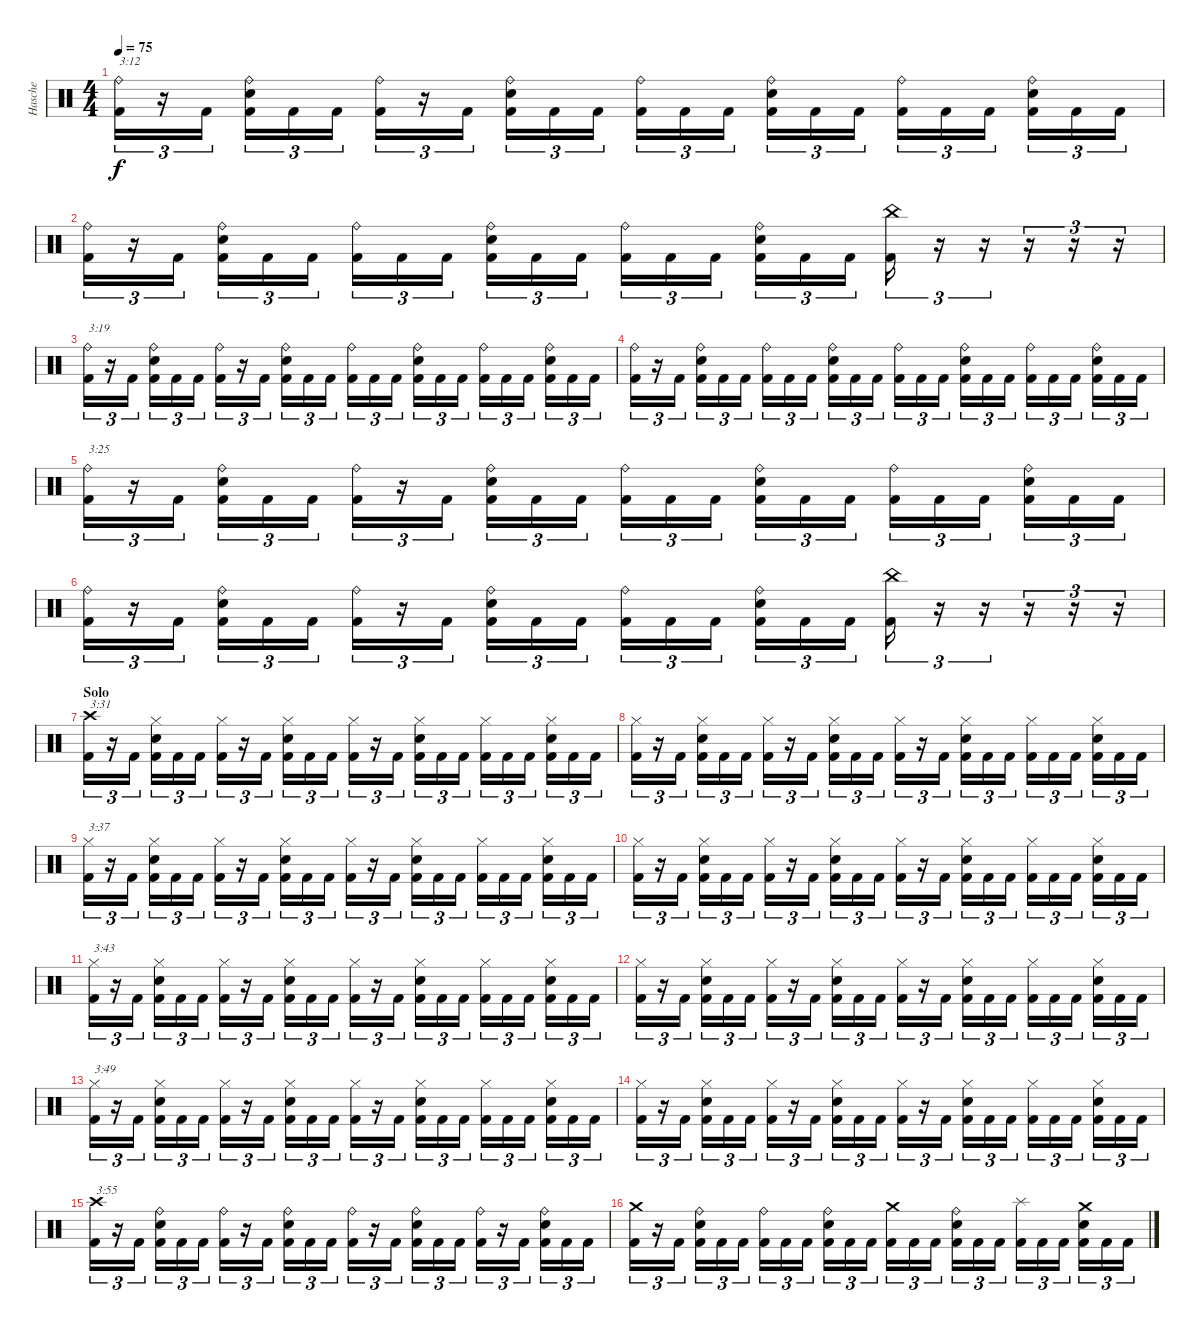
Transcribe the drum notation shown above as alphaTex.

\track ("Hasche" "Hasche") {instrument percussion}
\staff {score}
\articulation defaults
\ts (4 4)
\tempo 75
\clef neutral
\ks c
("Ride (bell)" "Kick (hit) 2").16{tu (3 2) txt "3:12" dy f} r.16{tu (3 2)} "Kick (hit) 2".16{tu (3 2)} ("Ride (bell)" "Snare (hit) 2" "Kick (hit) 2").16{tu (3 2)} "Kick (hit) 2".16{tu (3 2)} "Kick (hit) 2".16{tu (3 2)} ("Ride (bell)" "Kick (hit) 2").16{tu (3 2)} r.16{tu (3 2)} "Kick (hit) 2".16{tu (3 2)} ("Ride (bell)" "Snare (hit) 2" "Kick (hit) 2").16{tu (3 2)} "Kick (hit) 2".16{tu (3 2)} "Kick (hit) 2".16{tu (3 2)} ("Ride (bell)" "Kick (hit) 2").16{tu (3 2)} "Kick (hit) 2".16{tu (3 2)} "Kick (hit) 2".16{tu (3 2)} ("Ride (bell)" "Snare (hit) 2" "Kick (hit) 2").16{tu (3 2)} "Kick (hit) 2".16{tu (3 2)} "Kick (hit) 2".16{tu (3 2)} ("Ride (bell)" "Kick (hit) 2").16{tu (3 2)} "Kick (hit) 2".16{tu (3 2)} "Kick (hit) 2".16{tu (3 2)} ("Ride (bell)" "Snare (hit) 2" "Kick (hit) 2").16{tu (3 2)} "Kick (hit) 2".16{tu (3 2)} "Kick (hit) 2".16{tu (3 2)} |
("Ride (bell)" "Kick (hit) 2").16{tu (3 2)} r.16{tu (3 2)} "Kick (hit) 2".16{tu (3 2)} ("Ride (bell)" "Snare (hit) 2" "Kick (hit) 2").16{tu (3 2)} "Kick (hit) 2".16{tu (3 2)} "Kick (hit) 2".16{tu (3 2)} ("Ride (bell)" "Kick (hit) 2").16{tu (3 2)} "Kick (hit) 2".16{tu (3 2)} "Kick (hit) 2".16{tu (3 2)} ("Ride (bell)" "Snare (hit) 2" "Kick (hit) 2").16{tu (3 2)} "Kick (hit) 2".16{tu (3 2)} "Kick (hit) 2".16{tu (3 2)} ("Ride (bell)" "Kick (hit) 2").16{tu (3 2)} "Kick (hit) 2".16{tu (3 2)} "Kick (hit) 2".16{tu (3 2)} ("Ride (bell)" "Snare (hit) 2" "Kick (hit) 2").16{tu (3 2)} "Kick (hit) 2".16{tu (3 2)} "Kick (hit) 2".16{tu (3 2)} ("China (hit)" "Kick (hit) 2").16{tu (3 2)} r.16{tu (3 2)} r.16{tu (3 2)} r.16{tu (3 2)} r.16{tu (3 2)} r.16{tu (3 2)} |
("Ride (bell)" "Kick (hit) 2").16{tu (3 2) txt "3:19"} r.16{tu (3 2)} "Kick (hit) 2".16{tu (3 2)} ("Ride (bell)" "Snare (hit) 2" "Kick (hit) 2").16{tu (3 2)} "Kick (hit) 2".16{tu (3 2)} "Kick (hit) 2".16{tu (3 2)} ("Ride (bell)" "Kick (hit) 2").16{tu (3 2)} r.16{tu (3 2)} "Kick (hit) 2".16{tu (3 2)} ("Ride (bell)" "Snare (hit) 2" "Kick (hit) 2").16{tu (3 2)} "Kick (hit) 2".16{tu (3 2)} "Kick (hit) 2".16{tu (3 2)} ("Ride (bell)" "Kick (hit) 2").16{tu (3 2)} "Kick (hit) 2".16{tu (3 2)} "Kick (hit) 2".16{tu (3 2)} ("Ride (bell)" "Snare (hit) 2" "Kick (hit) 2").16{tu (3 2)} "Kick (hit) 2".16{tu (3 2)} "Kick (hit) 2".16{tu (3 2)} ("Ride (bell)" "Kick (hit) 2").16{tu (3 2)} "Kick (hit) 2".16{tu (3 2)} "Kick (hit) 2".16{tu (3 2)} ("Ride (bell)" "Snare (hit) 2" "Kick (hit) 2").16{tu (3 2)} "Kick (hit) 2".16{tu (3 2)} "Kick (hit) 2".16{tu (3 2)} |
("Ride (bell)" "Kick (hit) 2").16{tu (3 2)} r.16{tu (3 2)} "Kick (hit) 2".16{tu (3 2)} ("Ride (bell)" "Snare (hit) 2" "Kick (hit) 2").16{tu (3 2)} "Kick (hit) 2".16{tu (3 2)} "Kick (hit) 2".16{tu (3 2)} ("Ride (bell)" "Kick (hit) 2").16{tu (3 2)} "Kick (hit) 2".16{tu (3 2)} "Kick (hit) 2".16{tu (3 2)} ("Ride (bell)" "Snare (hit) 2" "Kick (hit) 2").16{tu (3 2)} "Kick (hit) 2".16{tu (3 2)} "Kick (hit) 2".16{tu (3 2)} ("Ride (bell)" "Kick (hit) 2").16{tu (3 2)} "Kick (hit) 2".16{tu (3 2)} "Kick (hit) 2".16{tu (3 2)} ("Ride (bell)" "Snare (hit) 2" "Kick (hit) 2").16{tu (3 2)} "Kick (hit) 2".16{tu (3 2)} "Kick (hit) 2".16{tu (3 2)} ("Ride (bell)" "Kick (hit) 2").16{tu (3 2)} "Kick (hit) 2".16{tu (3 2)} "Kick (hit) 2".16{tu (3 2)} ("Ride (bell)" "Snare (hit) 2" "Kick (hit) 2").16{tu (3 2)} "Kick (hit) 2".16{tu (3 2)} "Kick (hit) 2".16{tu (3 2)} |
("Ride (bell)" "Kick (hit) 2").16{tu (3 2) txt "3:25"} r.16{tu (3 2)} "Kick (hit) 2".16{tu (3 2)} ("Ride (bell)" "Snare (hit) 2" "Kick (hit) 2").16{tu (3 2)} "Kick (hit) 2".16{tu (3 2)} "Kick (hit) 2".16{tu (3 2)} ("Ride (bell)" "Kick (hit) 2").16{tu (3 2)} r.16{tu (3 2)} "Kick (hit) 2".16{tu (3 2)} ("Ride (bell)" "Snare (hit) 2" "Kick (hit) 2").16{tu (3 2)} "Kick (hit) 2".16{tu (3 2)} "Kick (hit) 2".16{tu (3 2)} ("Ride (bell)" "Kick (hit) 2").16{tu (3 2)} "Kick (hit) 2".16{tu (3 2)} "Kick (hit) 2".16{tu (3 2)} ("Ride (bell)" "Snare (hit) 2" "Kick (hit) 2").16{tu (3 2)} "Kick (hit) 2".16{tu (3 2)} "Kick (hit) 2".16{tu (3 2)} ("Ride (bell)" "Kick (hit) 2").16{tu (3 2)} "Kick (hit) 2".16{tu (3 2)} "Kick (hit) 2".16{tu (3 2)} ("Ride (bell)" "Snare (hit) 2" "Kick (hit) 2").16{tu (3 2)} "Kick (hit) 2".16{tu (3 2)} "Kick (hit) 2".16{tu (3 2)} |
("Ride (bell)" "Kick (hit) 2").16{tu (3 2)} r.16{tu (3 2)} "Kick (hit) 2".16{tu (3 2)} ("Ride (bell)" "Snare (hit) 2" "Kick (hit) 2").16{tu (3 2)} "Kick (hit) 2".16{tu (3 2)} "Kick (hit) 2".16{tu (3 2)} ("Ride (bell)" "Kick (hit) 2").16{tu (3 2)} r.16{tu (3 2)} "Kick (hit) 2".16{tu (3 2)} ("Ride (bell)" "Snare (hit) 2" "Kick (hit) 2").16{tu (3 2)} "Kick (hit) 2".16{tu (3 2)} "Kick (hit) 2".16{tu (3 2)} ("Ride (bell)" "Kick (hit) 2").16{tu (3 2)} "Kick (hit) 2".16{tu (3 2)} "Kick (hit) 2".16{tu (3 2)} ("Ride (bell)" "Snare (hit) 2" "Kick (hit) 2").16{tu (3 2)} "Kick (hit) 2".16{tu (3 2)} "Kick (hit) 2".16{tu (3 2)} ("China (hit)" "Kick (hit) 2").16{tu (3 2)} r.16{tu (3 2)} r.16{tu (3 2)} r.16{tu (3 2)} r.16{tu (3 2)} r.16{tu (3 2)} |
\section ("" "Solo")
("Crash high (hit)" "Kick (hit) 2").16{tu (3 2) txt "3:31"} r.16{tu (3 2)} "Kick (hit) 2".16{tu (3 2)} ("Hi-Hat (closed)" "Snare (hit) 2" "Kick (hit) 2").16{tu (3 2)} "Kick (hit) 2".16{tu (3 2)} "Kick (hit) 2".16{tu (3 2)} ("Hi-Hat (closed)" "Kick (hit) 2").16{tu (3 2)} r.16{tu (3 2)} "Kick (hit) 2".16{tu (3 2)} ("Hi-Hat (closed)" "Snare (hit) 2" "Kick (hit) 2").16{tu (3 2)} "Kick (hit) 2".16{tu (3 2)} "Kick (hit) 2".16{tu (3 2)} ("Hi-Hat (closed)" "Kick (hit) 2").16{tu (3 2)} r.16{tu (3 2)} "Kick (hit) 2".16{tu (3 2)} ("Hi-Hat (closed)" "Snare (hit) 2" "Kick (hit) 2").16{tu (3 2)} "Kick (hit) 2".16{tu (3 2)} "Kick (hit) 2".16{tu (3 2)} ("Hi-Hat (closed)" "Kick (hit) 2").16{tu (3 2)} "Kick (hit) 2".16{tu (3 2)} "Kick (hit) 2".16{tu (3 2)} ("Hi-Hat (closed)" "Snare (hit) 2" "Kick (hit) 2").16{tu (3 2)} "Kick (hit) 2".16{tu (3 2)} "Kick (hit) 2".16{tu (3 2)} |
("Hi-Hat (closed)" "Kick (hit) 2").16{tu (3 2)} r.16{tu (3 2)} "Kick (hit) 2".16{tu (3 2)} ("Hi-Hat (closed)" "Snare (hit) 2" "Kick (hit) 2").16{tu (3 2)} "Kick (hit) 2".16{tu (3 2)} "Kick (hit) 2".16{tu (3 2)} ("Hi-Hat (closed)" "Kick (hit) 2").16{tu (3 2)} r.16{tu (3 2)} "Kick (hit) 2".16{tu (3 2)} ("Hi-Hat (closed)" "Snare (hit) 2" "Kick (hit) 2").16{tu (3 2)} "Kick (hit) 2".16{tu (3 2)} "Kick (hit) 2".16{tu (3 2)} ("Hi-Hat (closed)" "Kick (hit) 2").16{tu (3 2)} r.16{tu (3 2)} "Kick (hit) 2".16{tu (3 2)} ("Hi-Hat (closed)" "Snare (hit) 2" "Kick (hit) 2").16{tu (3 2)} "Kick (hit) 2".16{tu (3 2)} "Kick (hit) 2".16{tu (3 2)} ("Hi-Hat (closed)" "Kick (hit) 2").16{tu (3 2)} "Kick (hit) 2".16{tu (3 2)} "Kick (hit) 2".16{tu (3 2)} ("Hi-Hat (closed)" "Snare (hit) 2" "Kick (hit) 2").16{tu (3 2)} "Kick (hit) 2".16{tu (3 2)} "Kick (hit) 2".16{tu (3 2)} |
("Hi-Hat (closed)" "Kick (hit) 2").16{tu (3 2) txt "3:37"} r.16{tu (3 2)} "Kick (hit) 2".16{tu (3 2)} ("Hi-Hat (closed)" "Snare (hit) 2" "Kick (hit) 2").16{tu (3 2)} "Kick (hit) 2".16{tu (3 2)} "Kick (hit) 2".16{tu (3 2)} ("Hi-Hat (closed)" "Kick (hit) 2").16{tu (3 2)} r.16{tu (3 2)} "Kick (hit) 2".16{tu (3 2)} ("Hi-Hat (closed)" "Snare (hit) 2" "Kick (hit) 2").16{tu (3 2)} "Kick (hit) 2".16{tu (3 2)} "Kick (hit) 2".16{tu (3 2)} ("Hi-Hat (closed)" "Kick (hit) 2").16{tu (3 2)} r.16{tu (3 2)} "Kick (hit) 2".16{tu (3 2)} ("Hi-Hat (closed)" "Snare (hit) 2" "Kick (hit) 2").16{tu (3 2)} "Kick (hit) 2".16{tu (3 2)} "Kick (hit) 2".16{tu (3 2)} ("Hi-Hat (closed)" "Kick (hit) 2").16{tu (3 2)} "Kick (hit) 2".16{tu (3 2)} "Kick (hit) 2".16{tu (3 2)} ("Hi-Hat (closed)" "Snare (hit) 2" "Kick (hit) 2").16{tu (3 2)} "Kick (hit) 2".16{tu (3 2)} "Kick (hit) 2".16{tu (3 2)} |
("Hi-Hat (closed)" "Kick (hit) 2").16{tu (3 2)} r.16{tu (3 2)} "Kick (hit) 2".16{tu (3 2)} ("Hi-Hat (closed)" "Snare (hit) 2" "Kick (hit) 2").16{tu (3 2)} "Kick (hit) 2".16{tu (3 2)} "Kick (hit) 2".16{tu (3 2)} ("Hi-Hat (closed)" "Kick (hit) 2").16{tu (3 2)} r.16{tu (3 2)} "Kick (hit) 2".16{tu (3 2)} ("Hi-Hat (closed)" "Snare (hit) 2" "Kick (hit) 2").16{tu (3 2)} "Kick (hit) 2".16{tu (3 2)} "Kick (hit) 2".16{tu (3 2)} ("Hi-Hat (closed)" "Kick (hit) 2").16{tu (3 2)} r.16{tu (3 2)} "Kick (hit) 2".16{tu (3 2)} ("Hi-Hat (closed)" "Snare (hit) 2" "Kick (hit) 2").16{tu (3 2)} "Kick (hit) 2".16{tu (3 2)} "Kick (hit) 2".16{tu (3 2)} ("Hi-Hat (closed)" "Kick (hit) 2").16{tu (3 2)} "Kick (hit) 2".16{tu (3 2)} "Kick (hit) 2".16{tu (3 2)} ("Hi-Hat (closed)" "Snare (hit) 2" "Kick (hit) 2").16{tu (3 2)} "Kick (hit) 2".16{tu (3 2)} "Kick (hit) 2".16{tu (3 2)} |
("Hi-Hat (closed)" "Kick (hit) 2").16{tu (3 2) txt "3:43"} r.16{tu (3 2)} "Kick (hit) 2".16{tu (3 2)} ("Hi-Hat (closed)" "Snare (hit) 2" "Kick (hit) 2").16{tu (3 2)} "Kick (hit) 2".16{tu (3 2)} "Kick (hit) 2".16{tu (3 2)} ("Hi-Hat (closed)" "Kick (hit) 2").16{tu (3 2)} r.16{tu (3 2)} "Kick (hit) 2".16{tu (3 2)} ("Hi-Hat (closed)" "Snare (hit) 2" "Kick (hit) 2").16{tu (3 2)} "Kick (hit) 2".16{tu (3 2)} "Kick (hit) 2".16{tu (3 2)} ("Hi-Hat (closed)" "Kick (hit) 2").16{tu (3 2)} r.16{tu (3 2)} "Kick (hit) 2".16{tu (3 2)} ("Hi-Hat (closed)" "Snare (hit) 2" "Kick (hit) 2").16{tu (3 2)} "Kick (hit) 2".16{tu (3 2)} "Kick (hit) 2".16{tu (3 2)} ("Hi-Hat (closed)" "Kick (hit) 2").16{tu (3 2)} "Kick (hit) 2".16{tu (3 2)} "Kick (hit) 2".16{tu (3 2)} ("Hi-Hat (closed)" "Snare (hit) 2" "Kick (hit) 2").16{tu (3 2)} "Kick (hit) 2".16{tu (3 2)} "Kick (hit) 2".16{tu (3 2)} |
("Hi-Hat (closed)" "Kick (hit) 2").16{tu (3 2)} r.16{tu (3 2)} "Kick (hit) 2".16{tu (3 2)} ("Hi-Hat (closed)" "Snare (hit) 2" "Kick (hit) 2").16{tu (3 2)} "Kick (hit) 2".16{tu (3 2)} "Kick (hit) 2".16{tu (3 2)} ("Hi-Hat (closed)" "Kick (hit) 2").16{tu (3 2)} r.16{tu (3 2)} "Kick (hit) 2".16{tu (3 2)} ("Hi-Hat (closed)" "Snare (hit) 2" "Kick (hit) 2").16{tu (3 2)} "Kick (hit) 2".16{tu (3 2)} "Kick (hit) 2".16{tu (3 2)} ("Hi-Hat (closed)" "Kick (hit) 2").16{tu (3 2)} r.16{tu (3 2)} "Kick (hit) 2".16{tu (3 2)} ("Hi-Hat (closed)" "Snare (hit) 2" "Kick (hit) 2").16{tu (3 2)} "Kick (hit) 2".16{tu (3 2)} "Kick (hit) 2".16{tu (3 2)} ("Hi-Hat (closed)" "Kick (hit) 2").16{tu (3 2)} "Kick (hit) 2".16{tu (3 2)} "Kick (hit) 2".16{tu (3 2)} ("Hi-Hat (closed)" "Snare (hit) 2" "Kick (hit) 2").16{tu (3 2)} "Kick (hit) 2".16{tu (3 2)} "Kick (hit) 2".16{tu (3 2)} |
("Hi-Hat (closed)" "Kick (hit) 2").16{tu (3 2) txt "3:49"} r.16{tu (3 2)} "Kick (hit) 2".16{tu (3 2)} ("Hi-Hat (closed)" "Snare (hit) 2" "Kick (hit) 2").16{tu (3 2)} "Kick (hit) 2".16{tu (3 2)} "Kick (hit) 2".16{tu (3 2)} ("Hi-Hat (closed)" "Kick (hit) 2").16{tu (3 2)} r.16{tu (3 2)} "Kick (hit) 2".16{tu (3 2)} ("Hi-Hat (closed)" "Snare (hit) 2" "Kick (hit) 2").16{tu (3 2)} "Kick (hit) 2".16{tu (3 2)} "Kick (hit) 2".16{tu (3 2)} ("Hi-Hat (closed)" "Kick (hit) 2").16{tu (3 2)} r.16{tu (3 2)} "Kick (hit) 2".16{tu (3 2)} ("Hi-Hat (closed)" "Snare (hit) 2" "Kick (hit) 2").16{tu (3 2)} "Kick (hit) 2".16{tu (3 2)} "Kick (hit) 2".16{tu (3 2)} ("Hi-Hat (closed)" "Kick (hit) 2").16{tu (3 2)} "Kick (hit) 2".16{tu (3 2)} "Kick (hit) 2".16{tu (3 2)} ("Hi-Hat (closed)" "Snare (hit) 2" "Kick (hit) 2").16{tu (3 2)} "Kick (hit) 2".16{tu (3 2)} "Kick (hit) 2".16{tu (3 2)} |
("Hi-Hat (closed)" "Kick (hit) 2").16{tu (3 2)} r.16{tu (3 2)} "Kick (hit) 2".16{tu (3 2)} ("Hi-Hat (closed)" "Snare (hit) 2" "Kick (hit) 2").16{tu (3 2)} "Kick (hit) 2".16{tu (3 2)} "Kick (hit) 2".16{tu (3 2)} ("Hi-Hat (closed)" "Kick (hit) 2").16{tu (3 2)} r.16{tu (3 2)} "Kick (hit) 2".16{tu (3 2)} ("Hi-Hat (closed)" "Snare (hit) 2" "Kick (hit) 2").16{tu (3 2)} "Kick (hit) 2".16{tu (3 2)} "Kick (hit) 2".16{tu (3 2)} ("Hi-Hat (closed)" "Kick (hit) 2").16{tu (3 2)} r.16{tu (3 2)} "Kick (hit) 2".16{tu (3 2)} ("Hi-Hat (closed)" "Snare (hit) 2" "Kick (hit) 2").16{tu (3 2)} "Kick (hit) 2".16{tu (3 2)} "Kick (hit) 2".16{tu (3 2)} ("Hi-Hat (closed)" "Kick (hit) 2").16{tu (3 2)} "Kick (hit) 2".16{tu (3 2)} "Kick (hit) 2".16{tu (3 2)} ("Hi-Hat (closed)" "Snare (hit) 2" "Kick (hit) 2").16{tu (3 2)} "Kick (hit) 2".16{tu (3 2)} "Kick (hit) 2".16{tu (3 2)} |
("Crash high (hit)" "Kick (hit) 2").16{tu (3 2) txt "3:55"} r.16{tu (3 2)} "Kick (hit) 2".16{tu (3 2)} ("Ride (bell)" "Snare (hit) 2" "Kick (hit) 2").16{tu (3 2)} "Kick (hit) 2".16{tu (3 2)} "Kick (hit) 2".16{tu (3 2)} ("Ride (bell)" "Kick (hit) 2").16{tu (3 2)} r.16{tu (3 2)} "Kick (hit) 2".16{tu (3 2)} ("Ride (bell)" "Snare (hit) 2" "Kick (hit) 2").16{tu (3 2)} "Kick (hit) 2".16{tu (3 2)} "Kick (hit) 2".16{tu (3 2)} ("Ride (bell)" "Kick (hit) 2").16{tu (3 2)} r.16{tu (3 2)} "Kick (hit) 2".16{tu (3 2)} ("Ride (bell)" "Snare (hit) 2" "Kick (hit) 2").16{tu (3 2)} "Kick (hit) 2".16{tu (3 2)} "Kick (hit) 2".16{tu (3 2)} ("Ride (bell)" "Kick (hit) 2").16{tu (3 2)} r.16{tu (3 2)} "Kick (hit) 2".16{tu (3 2)} ("Ride (bell)" "Snare (hit) 2" "Kick (hit) 2").16{tu (3 2)} "Kick (hit) 2".16{tu (3 2)} "Kick (hit) 2".16{tu (3 2)} |
("Crash medium (hit)" "Kick (hit) 2").16{tu (3 2)} r.16{tu (3 2)} "Kick (hit) 2".16{tu (3 2)} ("Ride (bell)" "Snare (hit) 2" "Kick (hit) 2").16{tu (3 2)} "Kick (hit) 2".16{tu (3 2)} "Kick (hit) 2".16{tu (3 2)} ("Ride (bell)" "Kick (hit) 2").16{tu (3 2)} "Kick (hit) 2".16{tu (3 2)} "Kick (hit) 2".16{tu (3 2)} ("Ride (bell)" "Snare (hit) 2" "Kick (hit) 2").16{tu (3 2)} "Kick (hit) 2".16{tu (3 2)} "Kick (hit) 2".16{tu (3 2)} ("Crash medium (hit)" "Kick (hit) 2").16{tu (3 2)} "Kick (hit) 2".16{tu (3 2)} "Kick (hit) 2".16{tu (3 2)} ("Ride (bell)" "Snare (hit) 2" "Kick (hit) 2").16{tu (3 2)} "Kick (hit) 2".16{tu (3 2)} "Kick (hit) 2".16{tu (3 2)} ("Splash (hit)" "Kick (hit) 2").16{tu (3 2)} "Kick (hit) 2".16{tu (3 2)} "Kick (hit) 2".16{tu (3 2)} ("Crash medium (hit)" "Snare (hit) 2" "Kick (hit) 2").16{tu (3 2)} "Kick (hit) 2".16{tu (3 2)} "Kick (hit) 2".16{tu (3 2)}
